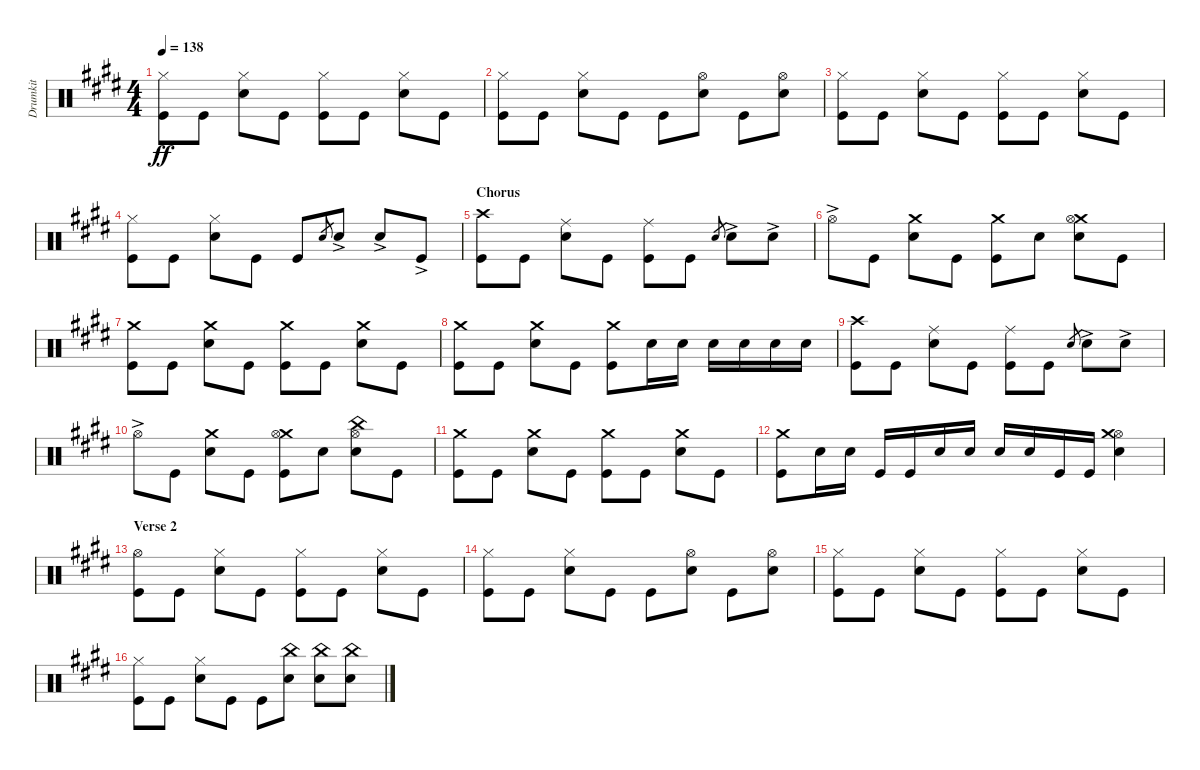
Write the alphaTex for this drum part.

\track ("Drumkit" "Drumkit") {instrument percussion}
\staff {score}
\articulation defaults
\ts (4 4)
\tempo 138
\clef neutral
\ks c#minor
("Kick (hit)" "Hi-Hat (closed)").8{dy ff} "Kick (hit)".8 ("Snare (hit) 2" "Hi-Hat (closed)").8 "Kick (hit)".8 ("Kick (hit)" "Hi-Hat (closed)").8 "Kick (hit)".8 ("Snare (hit) 2" "Hi-Hat (closed)").8 "Kick (hit)".8 |
("Kick (hit)" "Hi-Hat (closed)").8 "Kick (hit)".8 ("Snare (hit) 2" "Hi-Hat (closed)").8 "Kick (hit)".8 "Kick (hit)".8 ("Snare (hit) 2" "Hi-Hat (open)").8 "Kick (hit)".8 ("Snare (hit) 2" "Hi-Hat (open)").8 |
("Kick (hit)" "Hi-Hat (closed)").8 "Kick (hit)".8 ("Snare (hit) 2" "Hi-Hat (closed)").8 "Kick (hit)".8 ("Kick (hit)" "Hi-Hat (closed)").8 "Kick (hit)".8 ("Snare (hit) 2" "Hi-Hat (closed)").8 "Kick (hit)".8 |
("Kick (hit)" "Hi-Hat (closed)").8 "Kick (hit)".8 ("Snare (hit) 2" "Hi-Hat (closed)").8 "Kick (hit)".8 "Kick (hit)".8 "Snare (hit)".8{gr} "Snare (hit) 2"{ac}.8 "Snare (hit) 2"{ac}.8 "Kick (hit)"{ac}.8 |
\section ("" "Chorus")
("Kick (hit)" "Crash high (hit)").8 "Kick (hit)".8 ("Snare (hit) 2" "Ride (middle)").8 "Kick (hit)".8 ("Kick (hit)" "Ride (middle)").8 "Kick (hit)".8 "Snare (hit)".8{gr} "Snare (hit) 2"{ac}.8 "Snare (hit) 2"{ac}.8 |
"Hi-Hat (open)"{ac}.8 "Kick (hit)".8 ("Snare (hit) 2" "Crash medium (hit)").8 "Kick (hit)".8 ("Kick (hit)" "Crash medium (hit)").8 "Snare (hit) 2".8 ("Snare (hit) 2" "Crash medium (hit)" "Hi-Hat (open)").8 "Kick (hit)".8 |
("Kick (hit)" "Crash medium (hit)").8 "Kick (hit)".8 ("Snare (hit) 2" "Crash medium (hit)").8 "Kick (hit)".8 ("Kick (hit)" "Crash medium (hit)").8 "Kick (hit)".8 ("Snare (hit) 2" "Crash medium (hit)").8 "Kick (hit)".8 |
("Kick (hit)" "Crash medium (hit)").8 "Kick (hit)".8 ("Snare (hit) 2" "Crash medium (hit)").8 "Kick (hit)".8 ("Kick (hit)" "Crash medium (hit)").8 "Snare (hit) 2".16 "Snare (hit) 2".16 "Snare (hit) 2".16 "Snare (hit) 2".16 "Snare (hit) 2".16 "Snare (hit) 2".16 |
("Kick (hit)" "Crash high (hit)").8 "Kick (hit)".8 ("Snare (hit) 2" "Ride (middle)").8 "Kick (hit)".8 ("Kick (hit)" "Ride (middle)").8 "Kick (hit)".8 "Snare (hit)".8{gr} "Snare (hit) 2"{ac}.8 "Snare (hit) 2"{ac}.8 |
"Hi-Hat (open)"{ac}.8 "Kick (hit)".8 ("Snare (hit) 2" "Crash medium (hit)").8 "Kick (hit)".8 ("Kick (hit)" "Crash medium (hit)" "Hi-Hat (open)").8 "Snare (hit) 2".8 ("Snare (hit) 2" "Hi-Hat (open)" "China (hit)").8 "Kick (hit)".8 |
("Kick (hit)" "Crash medium (hit)").8 "Kick (hit)".8 ("Snare (hit) 2" "Crash medium (hit)").8 "Kick (hit)".8 ("Kick (hit)" "Crash medium (hit)").8 "Kick (hit)".8 ("Snare (hit) 2" "Crash medium (hit)").8 "Kick (hit)".8 |
("Kick (hit)" "Crash medium (hit)").8 "Snare (hit) 2".16 "Snare (hit) 2".16 "Kick (hit)".16 "Kick (hit)".16 "Snare (hit) 2".16 "Snare (hit) 2".16 "Snare (hit) 2".16 "Snare (hit) 2".16 "Kick (hit)".16 "Kick (hit)".16 ("Snare (hit) 2" "Hi-Hat (open)" "Crash medium (hit)").4 |
\section ("" "Verse 2")
("Kick (hit)" "Hi-Hat (open)").8 "Kick (hit)".8 ("Snare (hit) 2" "Hi-Hat (closed)").8 "Kick (hit)".8 ("Kick (hit)" "Hi-Hat (closed)").8 "Kick (hit)".8 ("Snare (hit) 2" "Hi-Hat (closed)").8 "Kick (hit)".8 |
("Kick (hit)" "Hi-Hat (closed)").8 "Kick (hit)".8 ("Snare (hit) 2" "Hi-Hat (closed)").8 "Kick (hit)".8 "Kick (hit)".8 ("Snare (hit) 2" "Hi-Hat (open)").8 "Kick (hit)".8 ("Snare (hit) 2" "Hi-Hat (open)").8 |
("Kick (hit)" "Hi-Hat (closed)").8 "Kick (hit)".8 ("Snare (hit) 2" "Hi-Hat (closed)").8 "Kick (hit)".8 ("Kick (hit)" "Hi-Hat (closed)").8 "Kick (hit)".8 ("Snare (hit) 2" "Hi-Hat (closed)").8 "Kick (hit)".8 |
("Kick (hit)" "Hi-Hat (closed)").8 "Kick (hit)".8 ("Snare (hit) 2" "Hi-Hat (closed)").8 "Kick (hit)".8 "Kick (hit)".8 ("Snare (hit) 2" "China (hit)").8 ("Snare (hit) 2" "China (hit)").8 ("Snare (hit) 2" "China (hit)").8
